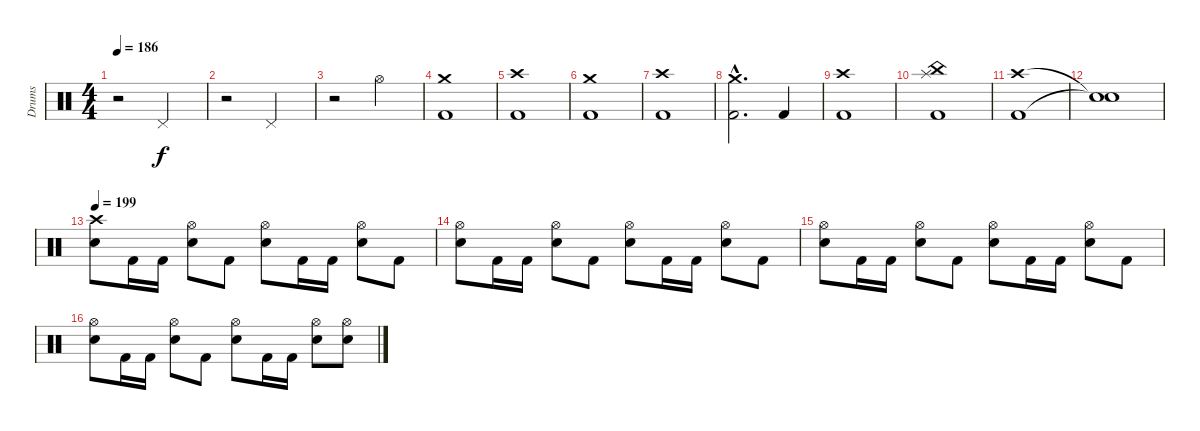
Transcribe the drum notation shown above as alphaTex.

\track ("Drums" "Drums") {instrument percussion}
\staff {score}
\articulation defaults
\ts (4 4)
\tempo 186
\clef neutral
\ks c
r.2{dy f} "Pedal Hi-Hat (hit)".2 |
r.2 "Pedal Hi-Hat (hit)".2 |
r.2 "Hi-Hat (open)".2 |
\section ("" "")
("Kick (hit) 2" "Crash medium (hit)").1 |
("Kick (hit) 2" "Crash high (hit)").1 |
("Kick (hit) 2" "Crash medium (hit)").1 |
("Kick (hit) 2" "Crash high (hit)").1 |
("Kick (hit) 2"{hac} "Crash medium (hit)"{hac}).2{d} "Kick (hit) 2".4 |
("Kick (hit) 2" "Crash high (hit)").1 |
("Kick (hit) 2" "Splash (hit)" "China (hit)").1 |
("Kick (hit) 2" "Crash high (hit)").1 |
("Snare (hit)"{t} "Snare (hit)"{t}).1 |
\section ("" "")
\tempo 199
("Snare (hit) 2" "Crash high (hit)").8 "Kick (hit) 2".16 "Kick (hit) 2".16 ("Snare (hit) 2" "Hi-Hat (open)").8 "Kick (hit) 2".8 ("Snare (hit) 2" "Hi-Hat (open)").8 "Kick (hit) 2".16 "Kick (hit) 2".16 ("Snare (hit) 2" "Hi-Hat (open)").8 "Kick (hit) 2".8 |
("Snare (hit) 2" "Hi-Hat (open)").8 "Kick (hit) 2".16 "Kick (hit) 2".16 ("Snare (hit) 2" "Hi-Hat (open)").8 "Kick (hit) 2".8 ("Snare (hit) 2" "Hi-Hat (open)").8 "Kick (hit) 2".16 "Kick (hit) 2".16 ("Snare (hit) 2" "Hi-Hat (open)").8 "Kick (hit) 2".8 |
("Snare (hit) 2" "Hi-Hat (open)").8 "Kick (hit) 2".16 "Kick (hit) 2".16 ("Snare (hit) 2" "Hi-Hat (open)").8 "Kick (hit) 2".8 ("Snare (hit) 2" "Hi-Hat (open)").8 "Kick (hit) 2".16 "Kick (hit) 2".16 ("Snare (hit) 2" "Hi-Hat (open)").8 "Kick (hit) 2".8 |
("Snare (hit) 2" "Hi-Hat (open)").8 "Kick (hit) 2".16 "Kick (hit) 2".16 ("Snare (hit) 2" "Hi-Hat (open)").8 "Kick (hit) 2".8 ("Snare (hit) 2" "Hi-Hat (open)").8 "Kick (hit) 2".16 "Kick (hit) 2".16 ("Snare (hit) 2" "Hi-Hat (open)").8 ("Snare (hit) 2" "Hi-Hat (open)").8
